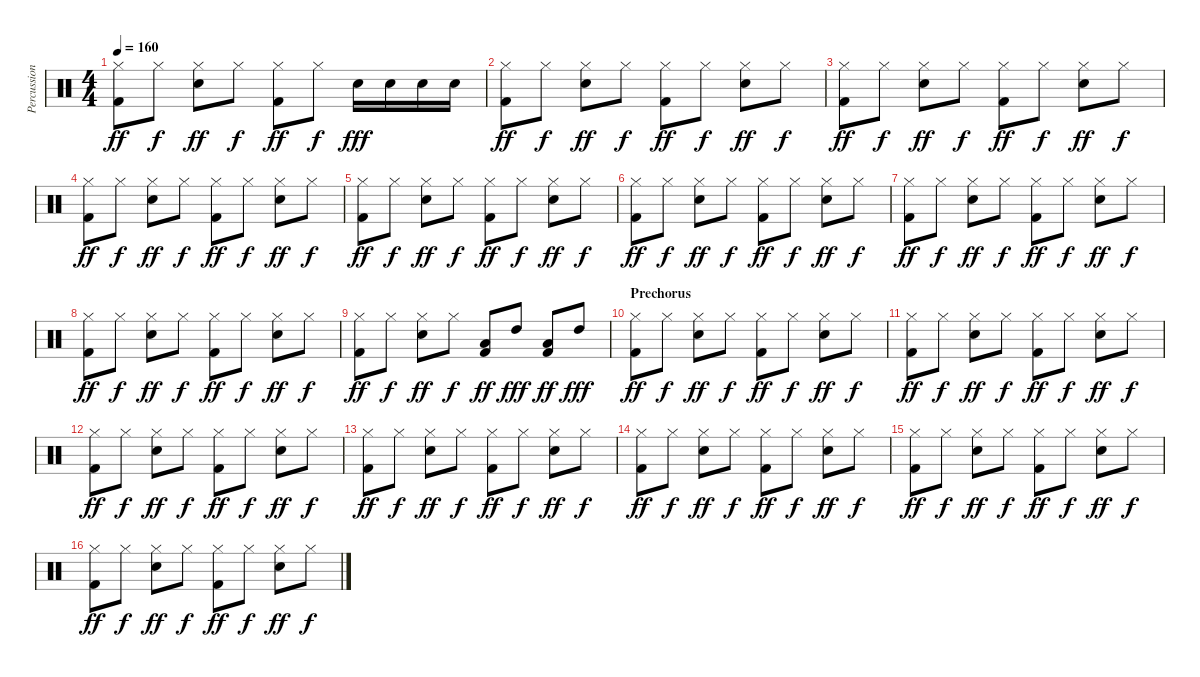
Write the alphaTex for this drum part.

\track ("Percussion" "Percussion") {instrument percussion}
\staff {score}
\articulation defaults
\ts (4 4)
\tempo 160
\clef neutral
\ks c
("Hi-Hat (closed)" "Kick (hit) 2").8{dy ff} "Hi-Hat (closed)".8{dy f} ("Hi-Hat (closed)" "Snare (hit) 2").8{dy ff} "Hi-Hat (closed)".8{dy f} ("Hi-Hat (closed)" "Kick (hit) 2").8{dy ff} "Hi-Hat (closed)".8{dy f} "Snare (hit) 2".16{dy fff} "Snare (hit) 2".16 "Snare (hit) 2".16 "Snare (hit) 2".16 |
("Hi-Hat (closed)" "Kick (hit) 2").8{dy ff} "Hi-Hat (closed)".8{dy f} ("Hi-Hat (closed)" "Snare (hit) 2").8{dy ff} "Hi-Hat (closed)".8{dy f} ("Hi-Hat (closed)" "Kick (hit) 2").8{dy ff} "Hi-Hat (closed)".8{dy f} ("Hi-Hat (closed)" "Snare (hit) 2").8{dy ff} "Hi-Hat (closed)".8{dy f} |
("Hi-Hat (closed)" "Kick (hit) 2").8{dy ff} "Hi-Hat (closed)".8{dy f} ("Hi-Hat (closed)" "Snare (hit) 2").8{dy ff} "Hi-Hat (closed)".8{dy f} ("Hi-Hat (closed)" "Kick (hit) 2").8{dy ff} "Hi-Hat (closed)".8{dy f} ("Hi-Hat (closed)" "Snare (hit) 2").8{dy ff} "Hi-Hat (closed)".8{dy f} |
("Hi-Hat (closed)" "Kick (hit) 2").8{dy ff} "Hi-Hat (closed)".8{dy f} ("Hi-Hat (closed)" "Snare (hit) 2").8{dy ff} "Hi-Hat (closed)".8{dy f} ("Hi-Hat (closed)" "Kick (hit) 2").8{dy ff} "Hi-Hat (closed)".8{dy f} ("Hi-Hat (closed)" "Snare (hit) 2").8{dy ff} "Hi-Hat (closed)".8{dy f} |
("Hi-Hat (closed)" "Kick (hit) 2").8{dy ff} "Hi-Hat (closed)".8{dy f} ("Hi-Hat (closed)" "Snare (hit) 2").8{dy ff} "Hi-Hat (closed)".8{dy f} ("Hi-Hat (closed)" "Kick (hit) 2").8{dy ff} "Hi-Hat (closed)".8{dy f} ("Hi-Hat (closed)" "Snare (hit) 2").8{dy ff} "Hi-Hat (closed)".8{dy f} |
("Hi-Hat (closed)" "Kick (hit) 2").8{dy ff} "Hi-Hat (closed)".8{dy f} ("Hi-Hat (closed)" "Snare (hit) 2").8{dy ff} "Hi-Hat (closed)".8{dy f} ("Hi-Hat (closed)" "Kick (hit) 2").8{dy ff} "Hi-Hat (closed)".8{dy f} ("Hi-Hat (closed)" "Snare (hit) 2").8{dy ff} "Hi-Hat (closed)".8{dy f} |
("Hi-Hat (closed)" "Kick (hit) 2").8{dy ff} "Hi-Hat (closed)".8{dy f} ("Hi-Hat (closed)" "Snare (hit) 2").8{dy ff} "Hi-Hat (closed)".8{dy f} ("Hi-Hat (closed)" "Kick (hit) 2").8{dy ff} "Hi-Hat (closed)".8{dy f} ("Hi-Hat (closed)" "Snare (hit) 2").8{dy ff} "Hi-Hat (closed)".8{dy f} |
("Hi-Hat (closed)" "Kick (hit) 2").8{dy ff} "Hi-Hat (closed)".8{dy f} ("Hi-Hat (closed)" "Snare (hit) 2").8{dy ff} "Hi-Hat (closed)".8{dy f} ("Hi-Hat (closed)" "Kick (hit) 2").8{dy ff} "Hi-Hat (closed)".8{dy f} ("Hi-Hat (closed)" "Snare (hit) 2").8{dy ff} "Hi-Hat (closed)".8{dy f} |
("Hi-Hat (closed)" "Kick (hit) 2").8{dy ff} "Hi-Hat (closed)".8{dy f} ("Hi-Hat (closed)" "Snare (hit) 2").8{dy ff} "Hi-Hat (closed)".8{dy f} ("Low Floor Tom (hit)" "Kick (hit) 2").8{dy ff} "High Tom (hit)".8{dy fff} ("Low Floor Tom (hit)" "Kick (hit) 2").8{dy ff} "High Tom (hit)".8{dy fff} |
\section ("" "Prechorus")
("Hi-Hat (closed)" "Kick (hit) 2").8{dy ff} "Hi-Hat (closed)".8{dy f} ("Hi-Hat (closed)" "Snare (hit) 2").8{dy ff} "Hi-Hat (closed)".8{dy f} ("Hi-Hat (closed)" "Kick (hit) 2").8{dy ff} "Hi-Hat (closed)".8{dy f} ("Hi-Hat (closed)" "Snare (hit) 2").8{dy ff} "Hi-Hat (closed)".8{dy f} |
("Hi-Hat (closed)" "Kick (hit) 2").8{dy ff} "Hi-Hat (closed)".8{dy f} ("Hi-Hat (closed)" "Snare (hit) 2").8{dy ff} "Hi-Hat (closed)".8{dy f} ("Hi-Hat (closed)" "Kick (hit) 2").8{dy ff} "Hi-Hat (closed)".8{dy f} ("Hi-Hat (closed)" "Snare (hit) 2").8{dy ff} "Hi-Hat (closed)".8{dy f} |
("Hi-Hat (closed)" "Kick (hit) 2").8{dy ff} "Hi-Hat (closed)".8{dy f} ("Hi-Hat (closed)" "Snare (hit) 2").8{dy ff} "Hi-Hat (closed)".8{dy f} ("Hi-Hat (closed)" "Kick (hit) 2").8{dy ff} "Hi-Hat (closed)".8{dy f} ("Hi-Hat (closed)" "Snare (hit) 2").8{dy ff} "Hi-Hat (closed)".8{dy f} |
("Hi-Hat (closed)" "Kick (hit) 2").8{dy ff} "Hi-Hat (closed)".8{dy f} ("Hi-Hat (closed)" "Snare (hit) 2").8{dy ff} "Hi-Hat (closed)".8{dy f} ("Hi-Hat (closed)" "Kick (hit) 2").8{dy ff} "Hi-Hat (closed)".8{dy f} ("Hi-Hat (closed)" "Snare (hit) 2").8{dy ff} "Hi-Hat (closed)".8{dy f} |
("Hi-Hat (closed)" "Kick (hit) 2").8{dy ff} "Hi-Hat (closed)".8{dy f} ("Hi-Hat (closed)" "Snare (hit) 2").8{dy ff} "Hi-Hat (closed)".8{dy f} ("Hi-Hat (closed)" "Kick (hit) 2").8{dy ff} "Hi-Hat (closed)".8{dy f} ("Hi-Hat (closed)" "Snare (hit) 2").8{dy ff} "Hi-Hat (closed)".8{dy f} |
("Hi-Hat (closed)" "Kick (hit) 2").8{dy ff} "Hi-Hat (closed)".8{dy f} ("Hi-Hat (closed)" "Snare (hit) 2").8{dy ff} "Hi-Hat (closed)".8{dy f} ("Hi-Hat (closed)" "Kick (hit) 2").8{dy ff} "Hi-Hat (closed)".8{dy f} ("Hi-Hat (closed)" "Snare (hit) 2").8{dy ff} "Hi-Hat (closed)".8{dy f} |
("Hi-Hat (closed)" "Kick (hit) 2").8{dy ff} "Hi-Hat (closed)".8{dy f} ("Hi-Hat (closed)" "Snare (hit) 2").8{dy ff} "Hi-Hat (closed)".8{dy f} ("Hi-Hat (closed)" "Kick (hit) 2").8{dy ff} "Hi-Hat (closed)".8{dy f} ("Hi-Hat (closed)" "Snare (hit) 2").8{dy ff} "Hi-Hat (closed)".8{dy f}
